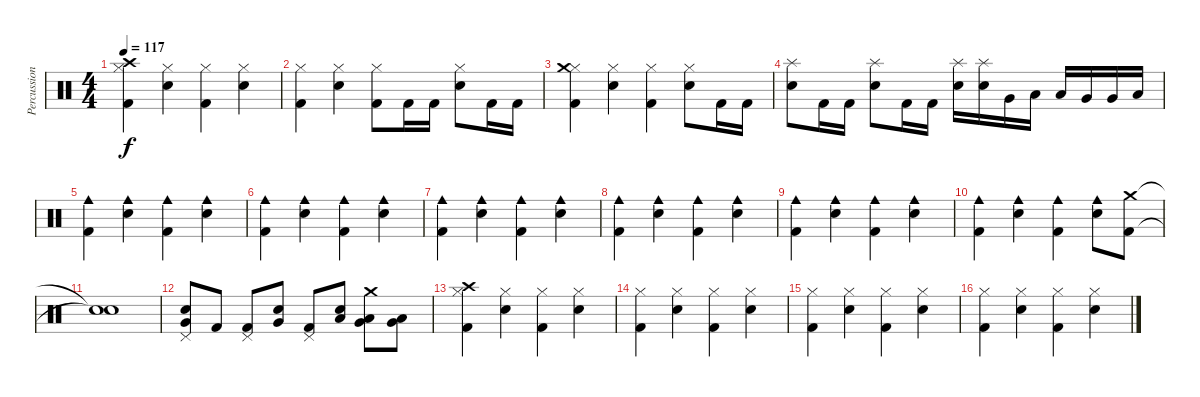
\track ("Percussion" "Percussion") {instrument percussion}
\staff {score}
\articulation defaults
\ts (4 4)
\tempo 117
\clef neutral
\ks c
("Hi-Hat (closed)" "Crash high (hit)" "Kick (hit) 2").4{dy f} ("Hi-Hat (closed)" "Metronome (bell)").4 ("Hi-Hat (closed)" "Kick (hit) 2").4 ("Hi-Hat (closed)" "Metronome (bell)").4 |
("Hi-Hat (closed)" "Kick (hit) 2").4 ("Hi-Hat (closed)" "Metronome (bell)").4 ("Hi-Hat (closed)" "Kick (hit) 2").8 "Kick (hit) 2".16 "Kick (hit) 2".16 ("Hi-Hat (closed)" "Metronome (bell)").8 "Kick (hit) 2".16 "Kick (hit) 2".16 |
("Hi-Hat (closed)" "Crash medium (hit)" "Kick (hit) 2").4 ("Hi-Hat (closed)" "Metronome (bell)").4 ("Hi-Hat (closed)" "Kick (hit) 2").4 ("Hi-Hat (closed)" "Metronome (bell)").8 "Kick (hit) 2".16 "Kick (hit) 2".16 |
("Splash (hit)" "Metronome (bell)").8 "Kick (hit) 2".16 "Kick (hit) 2".16 ("Splash (hit)" "Metronome (bell)").8 "Kick (hit) 2".16 "Kick (hit) 2".16 ("Splash (hit)" "Metronome (bell)").16 ("Splash (hit)" "Metronome (bell)").16 "Very Low Tom (hit)".16 "Low Floor Tom (hit)".16 "Low Tom (hit)".16 "Very Low Tom (hit)".16 "Very Low Tom (hit)".16 "Low Floor Tom (hit)".16 |
("Cowbell medium (hit)" "Kick (hit) 2").4 ("Cowbell medium (hit)" "Metronome (bell)").4 ("Cowbell medium (hit)" "Kick (hit) 2").4 ("Cowbell medium (hit)" "Metronome (bell)").4 |
("Cowbell medium (hit)" "Kick (hit) 2").4 ("Cowbell medium (hit)" "Metronome (bell)").4 ("Cowbell medium (hit)" "Kick (hit) 2").4 ("Cowbell medium (hit)" "Metronome (bell)").4 |
("Cowbell medium (hit)" "Kick (hit) 2").4 ("Cowbell medium (hit)" "Metronome (bell)").4 ("Cowbell medium (hit)" "Kick (hit) 2").4 ("Cowbell medium (hit)" "Metronome (bell)").4 |
("Cowbell medium (hit)" "Kick (hit) 2").4 ("Cowbell medium (hit)" "Metronome (bell)").4 ("Cowbell medium (hit)" "Kick (hit) 2").4 ("Cowbell medium (hit)" "Metronome (bell)").4 |
("Cowbell medium (hit)" "Kick (hit) 2").4 ("Cowbell medium (hit)" "Metronome (bell)").4 ("Cowbell medium (hit)" "Kick (hit) 2").4 ("Cowbell medium (hit)" "Metronome (bell)").4 |
("Cowbell medium (hit)" "Kick (hit) 2").4 ("Cowbell medium (hit)" "Metronome (bell)").4 ("Cowbell medium (hit)" "Kick (hit) 2").4 ("Cowbell medium (hit)" "Metronome (bell)").8 ("Crash medium (hit)" "Kick (hit) 2").8 |
("Snare (hit)"{t} "Snare (hit)"{t}).1 |
("Pedal Hi-Hat (hit)" "Very Low Tom (hit)" "Metronome (bell)").8 "Kick (hit) 2".8 ("Pedal Hi-Hat (hit)" "Kick (hit) 2").8 ("Very Low Tom (hit)" "Metronome (bell)").8 ("Pedal Hi-Hat (hit)" "Kick (hit) 2").8 ("Low Floor Tom (hit)" "Metronome (bell)").8 ("Crash medium (hit)" "Low Tom (hit)" "Very Low Tom (hit)").8 ("Very Low Tom (hit)" "Low Floor Tom (hit)").8 |
("Hi-Hat (closed)" "Crash high (hit)" "Kick (hit) 2").4 ("Hi-Hat (closed)" "Metronome (bell)").4 ("Hi-Hat (closed)" "Kick (hit) 2").4 ("Hi-Hat (closed)" "Metronome (bell)").4 |
("Hi-Hat (closed)" "Kick (hit) 2").4 ("Hi-Hat (closed)" "Metronome (bell)").4 ("Hi-Hat (closed)" "Kick (hit) 2").4 ("Hi-Hat (closed)" "Metronome (bell)").4 |
("Hi-Hat (closed)" "Kick (hit) 2").4 ("Hi-Hat (closed)" "Metronome (bell)").4 ("Hi-Hat (closed)" "Kick (hit) 2").4 ("Hi-Hat (closed)" "Metronome (bell)").4 |
("Hi-Hat (closed)" "Kick (hit) 2").4 ("Hi-Hat (closed)" "Metronome (bell)").4 ("Hi-Hat (closed)" "Kick (hit) 2").4 ("Hi-Hat (closed)" "Metronome (bell)").4
